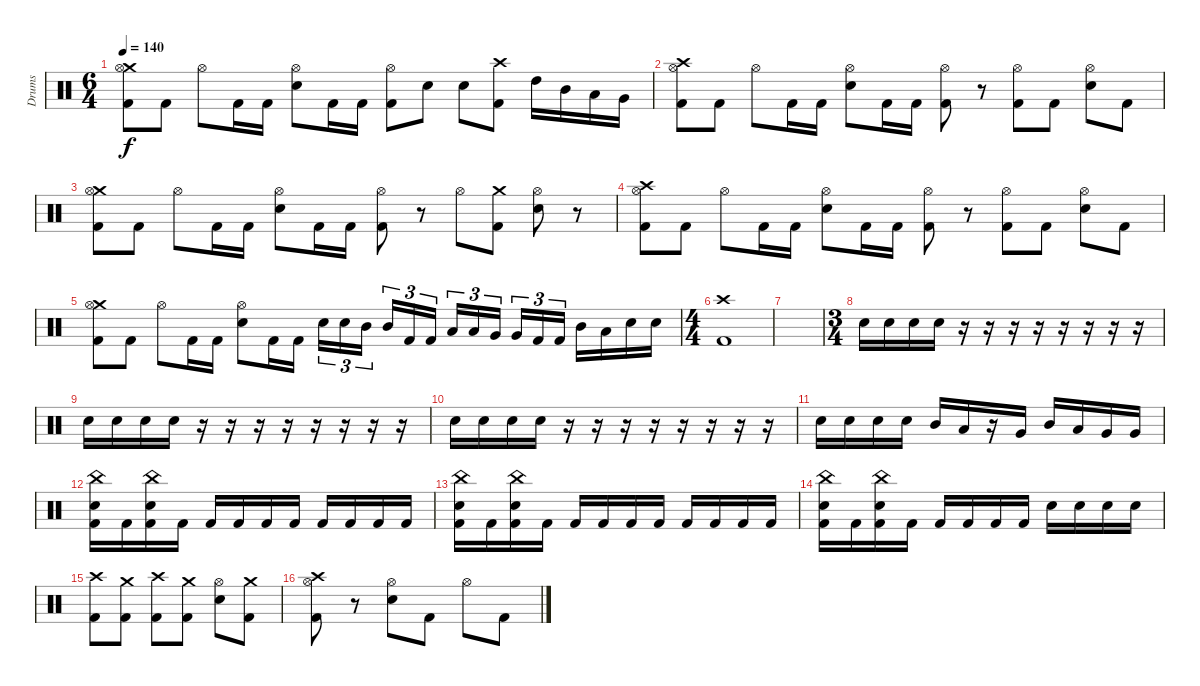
\track ("Drums" "Drums") {instrument percussion}
\staff {score}
\articulation defaults
\ts (6 4)
\tempo 140
\clef neutral
\ks c
("Crash medium (hit)" "Hi-Hat (open)" "Kick (hit) 2").8{dy f} "Kick (hit) 2".8 "Hi-Hat (open)".8 "Kick (hit) 2".16 "Kick (hit) 2".16 ("Hi-Hat (open)" "Electric Snare (hit)").8 "Kick (hit) 2".16 "Kick (hit) 2".16 ("Hi-Hat (open)" "Kick (hit) 2").8 "Electric Snare (hit)".8 "Electric Snare (hit)".8 ("Crash high (hit)" "Kick (hit) 2").8 "High Tom (hit)".16 "Mid Tom (hit)".16 "Low Tom (hit)".16 "Very Low Tom (hit)".16 |
("Crash high (hit)" "Hi-Hat (open)" "Kick (hit) 2").8 "Kick (hit) 2".8 "Hi-Hat (open)".8 "Kick (hit) 2".16 "Kick (hit) 2".16 ("Hi-Hat (open)" "Electric Snare (hit)").8 "Kick (hit) 2".16 "Kick (hit) 2".16 ("Hi-Hat (open)" "Kick (hit) 2").8 r.8 ("Hi-Hat (open)" "Kick (hit) 2").8 "Kick (hit) 2".8 ("Hi-Hat (open)" "Electric Snare (hit)").8 "Kick (hit) 2".8 |
("Crash medium (hit)" "Hi-Hat (open)" "Kick (hit) 2").8 "Kick (hit) 2".8 "Hi-Hat (open)".8 "Kick (hit) 2".16 "Kick (hit) 2".16 ("Hi-Hat (open)" "Electric Snare (hit)").8 "Kick (hit) 2".16 "Kick (hit) 2".16 ("Hi-Hat (open)" "Kick (hit) 2").8 r.8 "Hi-Hat (open)".8 ("Crash medium (hit)" "Kick (hit) 2").8 ("Hi-Hat (open)" "Electric Snare (hit)").8 r.8 |
("Crash high (hit)" "Hi-Hat (open)" "Kick (hit) 2").8 "Kick (hit) 2".8 "Hi-Hat (open)".8 "Kick (hit) 2".16 "Kick (hit) 2".16 ("Hi-Hat (open)" "Electric Snare (hit)").8 "Kick (hit) 2".16 "Kick (hit) 2".16 ("Hi-Hat (open)" "Kick (hit) 2").8 r.8 ("Hi-Hat (open)" "Kick (hit) 2").8 "Kick (hit) 2".8 ("Hi-Hat (open)" "Electric Snare (hit)").8 "Kick (hit) 2".8 |
("Crash medium (hit)" "Hi-Hat (open)" "Kick (hit) 2").8 "Kick (hit) 2".8 "Hi-Hat (open)".8 "Kick (hit) 2".16 "Kick (hit) 2".16 ("Hi-Hat (open)" "Electric Snare (hit)").8 "Kick (hit) 2".16 "Kick (hit) 2".16 "Electric Snare (hit)".16{tu (3 2)} "Electric Snare (hit)".16{tu (3 2)} "Mid Tom (hit)".16{tu (3 2)} "Mid Tom (hit)".16{tu (3 2)} "Kick (hit) 2".16{tu (3 2)} "Kick (hit) 2".16{tu (3 2)} "Low Tom (hit)".16{tu (3 2)} "Low Tom (hit)".16{tu (3 2)} "Very Low Tom (hit)".16{tu (3 2)} "Very Low Tom (hit)".16{tu (3 2)} "Kick (hit) 2".16{tu (3 2)} "Kick (hit) 2".16{tu (3 2)} "Mid Tom (hit)".16 "Low Tom (hit)".16 "Electric Snare (hit)".16 "Electric Snare (hit)".16 |
\ts (4 4)
("Crash high (hit)" "Kick (hit) 2").1 |
|
\ts (3 4)
"Electric Snare (hit)".16 "Electric Snare (hit)".16 "Electric Snare (hit)".16 "Electric Snare (hit)".16 r.16 r.16 r.16 r.16 r.16 r.16 r.16 r.16 |
"Electric Snare (hit)".16 "Electric Snare (hit)".16 "Electric Snare (hit)".16 "Electric Snare (hit)".16 r.16 r.16 r.16 r.16 r.16 r.16 r.16 r.16 |
"Electric Snare (hit)".16 "Electric Snare (hit)".16 "Electric Snare (hit)".16 "Electric Snare (hit)".16 r.16 r.16 r.16 r.16 r.16 r.16 r.16 r.16 |
"Electric Snare (hit)".16 "Electric Snare (hit)".16 "Electric Snare (hit)".16 "Electric Snare (hit)".16 "Mid Tom (hit)".16 "Low Tom (hit)".16 r.16 "Very Low Tom (hit)".16 "Mid Tom (hit)".16 "Low Tom (hit)".16 "Very Low Tom (hit)".16 "Very Low Tom (hit)".16 |
("China (hit)" "Electric Snare (hit)" "Kick (hit) 2").16 "Kick (hit) 2".16 ("China (hit)" "Electric Snare (hit)" "Kick (hit) 2").16 "Kick (hit) 2".16 "Kick (hit) 2".16 "Kick (hit) 2".16 "Kick (hit) 2".16 "Kick (hit) 2".16 "Kick (hit) 2".16 "Kick (hit) 2".16 "Kick (hit) 2".16 "Kick (hit) 2".16 |
("China (hit)" "Electric Snare (hit)" "Kick (hit) 2").16 "Kick (hit) 2".16 ("China (hit)" "Electric Snare (hit)" "Kick (hit) 2").16 "Kick (hit) 2".16 "Kick (hit) 2".16 "Kick (hit) 2".16 "Kick (hit) 2".16 "Kick (hit) 2".16 "Kick (hit) 2".16 "Kick (hit) 2".16 "Kick (hit) 2".16 "Kick (hit) 2".16 |
("China (hit)" "Electric Snare (hit)" "Kick (hit) 2").16 "Kick (hit) 2".16 ("China (hit)" "Electric Snare (hit)" "Kick (hit) 2").16 "Kick (hit) 2".16 "Kick (hit) 2".16 "Kick (hit) 2".16 "Kick (hit) 2".16 "Kick (hit) 2".16 "Electric Snare (hit)".16 "Electric Snare (hit)".16 "Electric Snare (hit)".16 "Electric Snare (hit)".16 |
("Crash high (hit)" "Kick (hit) 2").8 ("Crash medium (hit)" "Kick (hit) 2").8 ("Crash high (hit)" "Kick (hit) 2").8 ("Crash medium (hit)" "Kick (hit) 2").8 ("Hi-Hat (open)" "Electric Snare (hit)").8 ("Crash medium (hit)" "Kick (hit) 2").8 |
("Crash high (hit)" "Hi-Hat (open)" "Kick (hit) 2").8 r.8 ("Hi-Hat (open)" "Electric Snare (hit)").8 "Kick (hit) 2".8 "Hi-Hat (open)".8 "Kick (hit) 2".8
